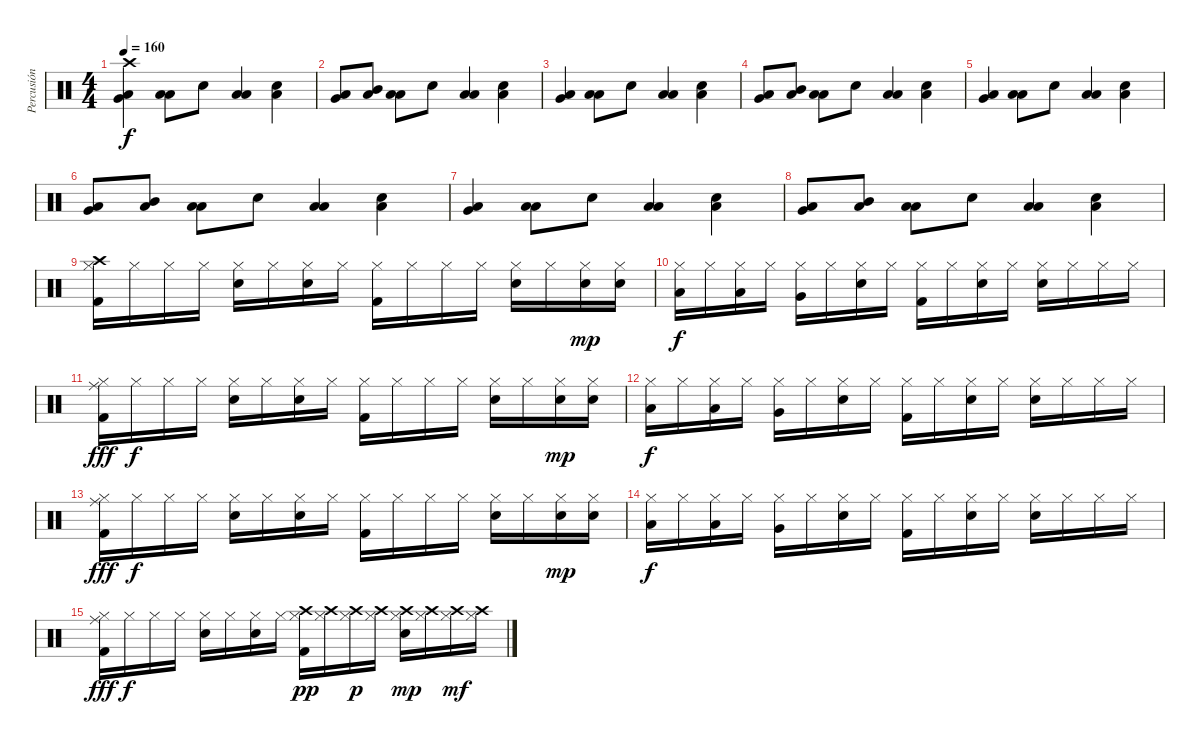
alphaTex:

\track ("Percusión" "Percusión") {instrument percussion}
\staff {score}
\articulation defaults
\ts (4 4)
\tempo 160
\clef neutral
\ks c
("Crash high (hit)" "Low Floor Tom (hit)" "Very Low Tom (hit)").4{dy f} ("Low Floor Tom (hit)" "Low Tom (hit)").8 "Snare (hit) 2".8 ("Low Floor Tom (hit)" "Low Tom (hit)").4 ("Low Floor Tom (hit)" "Snare (hit) 2").4 |
("Low Floor Tom (hit)" "Very Low Tom (hit)").8 ("Low Floor Tom (hit)" "Mid Tom (hit)").8 ("Low Floor Tom (hit)" "Low Tom (hit)").8 "Snare (hit) 2".8 ("Low Floor Tom (hit)" "Low Tom (hit)").4 ("Low Floor Tom (hit)" "Snare (hit) 2").4 |
("Low Floor Tom (hit)" "Very Low Tom (hit)").4 ("Low Floor Tom (hit)" "Low Tom (hit)").8 "Snare (hit) 2".8 ("Low Floor Tom (hit)" "Low Tom (hit)").4 ("Low Floor Tom (hit)" "Snare (hit) 2").4 |
("Low Floor Tom (hit)" "Very Low Tom (hit)").8 ("Low Floor Tom (hit)" "Mid Tom (hit)").8 ("Low Floor Tom (hit)" "Low Tom (hit)").8 "Snare (hit) 2".8 ("Low Floor Tom (hit)" "Low Tom (hit)").4 ("Low Floor Tom (hit)" "Snare (hit) 2").4 |
("Low Floor Tom (hit)" "Very Low Tom (hit)").4 ("Low Floor Tom (hit)" "Low Tom (hit)").8 "Snare (hit) 2".8 ("Low Floor Tom (hit)" "Low Tom (hit)").4 ("Low Floor Tom (hit)" "Snare (hit) 2").4 |
("Low Floor Tom (hit)" "Very Low Tom (hit)").8 ("Low Floor Tom (hit)" "Mid Tom (hit)").8 ("Low Floor Tom (hit)" "Low Tom (hit)").8 "Snare (hit) 2".8 ("Low Floor Tom (hit)" "Low Tom (hit)").4 ("Low Floor Tom (hit)" "Snare (hit) 2").4 |
("Low Floor Tom (hit)" "Very Low Tom (hit)").4 ("Low Floor Tom (hit)" "Low Tom (hit)").8 "Snare (hit) 2".8 ("Low Floor Tom (hit)" "Low Tom (hit)").4 ("Low Floor Tom (hit)" "Snare (hit) 2").4 |
("Low Floor Tom (hit)" "Very Low Tom (hit)").8 ("Low Floor Tom (hit)" "Mid Tom (hit)").8 ("Low Floor Tom (hit)" "Low Tom (hit)").8 "Snare (hit) 2".8 ("Low Floor Tom (hit)" "Low Tom (hit)").4 ("Low Floor Tom (hit)" "Snare (hit) 2").4 |
("Crash high (hit)" "Hi-Hat (closed)" "Kick (hit) 2").16 "Hi-Hat (closed)".16 "Hi-Hat (closed)".16 "Hi-Hat (closed)".16 ("Hi-Hat (closed)" "Snare (hit) 2").16 "Hi-Hat (closed)".16 ("Hi-Hat (closed)" "Snare (hit) 2").16 "Hi-Hat (closed)".16 ("Hi-Hat (closed)" "Kick (hit) 2").16 "Hi-Hat (closed)".16 "Hi-Hat (closed)".16 "Hi-Hat (closed)".16 ("Hi-Hat (closed)" "Snare (hit) 2").16 "Hi-Hat (closed)".16 ("Hi-Hat (closed)" "Snare (hit) 2").16{dy mp} ("Hi-Hat (closed)" "Snare (hit) 2").16 |
("Hi-Hat (closed)" "Low Floor Tom (hit)").16{dy f} "Hi-Hat (closed)".16 ("Hi-Hat (closed)" "Low Tom (hit)").16 "Hi-Hat (closed)".16 ("Hi-Hat (closed)" "Very Low Tom (hit)").16 "Hi-Hat (closed)".16 ("Hi-Hat (closed)" "Snare (hit) 2").16 "Hi-Hat (closed)".16 ("Hi-Hat (closed)" "Kick (hit) 2").16 "Hi-Hat (closed)".16 ("Hi-Hat (closed)" "Snare (hit) 2").16 "Hi-Hat (closed)".16 ("Hi-Hat (closed)" "Snare (hit) 2").16 "Hi-Hat (closed)".16 "Hi-Hat (closed)".16 "Hi-Hat (closed)".16 |
("Ride (middle)" "Hi-Hat (closed)" "Kick (hit) 2").16{dy fff} "Hi-Hat (closed)".16{dy f} "Hi-Hat (closed)".16 "Hi-Hat (closed)".16 ("Hi-Hat (closed)" "Snare (hit) 2").16 "Hi-Hat (closed)".16 ("Hi-Hat (closed)" "Snare (hit) 2").16 "Hi-Hat (closed)".16 ("Hi-Hat (closed)" "Kick (hit) 2").16 "Hi-Hat (closed)".16 "Hi-Hat (closed)".16 "Hi-Hat (closed)".16 ("Hi-Hat (closed)" "Snare (hit) 2").16 "Hi-Hat (closed)".16 ("Hi-Hat (closed)" "Snare (hit) 2").16{dy mp} ("Hi-Hat (closed)" "Snare (hit) 2").16 |
("Hi-Hat (closed)" "Low Floor Tom (hit)").16{dy f} "Hi-Hat (closed)".16 ("Hi-Hat (closed)" "Low Tom (hit)").16 "Hi-Hat (closed)".16 ("Hi-Hat (closed)" "Very Low Tom (hit)").16 "Hi-Hat (closed)".16 ("Hi-Hat (closed)" "Snare (hit) 2").16 "Hi-Hat (closed)".16 ("Hi-Hat (closed)" "Kick (hit) 2").16 "Hi-Hat (closed)".16 ("Hi-Hat (closed)" "Snare (hit) 2").16 "Hi-Hat (closed)".16 ("Hi-Hat (closed)" "Snare (hit) 2").16 "Hi-Hat (closed)".16 "Hi-Hat (closed)".16 "Hi-Hat (closed)".16 |
("Ride (middle)" "Hi-Hat (closed)" "Kick (hit) 2").16{dy fff} "Hi-Hat (closed)".16{dy f} "Hi-Hat (closed)".16 "Hi-Hat (closed)".16 ("Hi-Hat (closed)" "Snare (hit) 2").16 "Hi-Hat (closed)".16 ("Hi-Hat (closed)" "Snare (hit) 2").16 "Hi-Hat (closed)".16 ("Hi-Hat (closed)" "Kick (hit) 2").16 "Hi-Hat (closed)".16 "Hi-Hat (closed)".16 "Hi-Hat (closed)".16 ("Hi-Hat (closed)" "Snare (hit) 2").16 "Hi-Hat (closed)".16 ("Hi-Hat (closed)" "Snare (hit) 2").16{dy mp} ("Hi-Hat (closed)" "Snare (hit) 2").16 |
("Hi-Hat (closed)" "Low Floor Tom (hit)").16{dy f} "Hi-Hat (closed)".16 ("Hi-Hat (closed)" "Low Tom (hit)").16 "Hi-Hat (closed)".16 ("Hi-Hat (closed)" "Very Low Tom (hit)").16 "Hi-Hat (closed)".16 ("Hi-Hat (closed)" "Snare (hit) 2").16 "Hi-Hat (closed)".16 ("Hi-Hat (closed)" "Kick (hit) 2").16 "Hi-Hat (closed)".16 ("Hi-Hat (closed)" "Snare (hit) 2").16 "Hi-Hat (closed)".16 ("Hi-Hat (closed)" "Snare (hit) 2").16 "Hi-Hat (closed)".16 "Hi-Hat (closed)".16 "Hi-Hat (closed)".16 |
("Ride (middle)" "Hi-Hat (closed)" "Kick (hit) 2").16{dy fff} "Hi-Hat (closed)".16{dy f} "Hi-Hat (closed)".16 "Hi-Hat (closed)".16 ("Hi-Hat (closed)" "Snare (hit) 2").16 "Hi-Hat (closed)".16 ("Hi-Hat (closed)" "Snare (hit) 2").16 "Hi-Hat (closed)".16 ("Crash high (hit)" "Hi-Hat (closed)" "Kick (hit) 2").16{dy pp} ("Crash high (hit)" "Hi-Hat (closed)").16 ("Crash high (hit)" "Hi-Hat (closed)").16{dy p} ("Crash high (hit)" "Hi-Hat (closed)").16 ("Crash high (hit)" "Hi-Hat (closed)" "Snare (hit) 2").16{dy mp} ("Crash high (hit)" "Hi-Hat (closed)").16 ("Crash high (hit)" "Hi-Hat (closed)").16{dy mf} ("Crash high (hit)" "Hi-Hat (closed)").16
